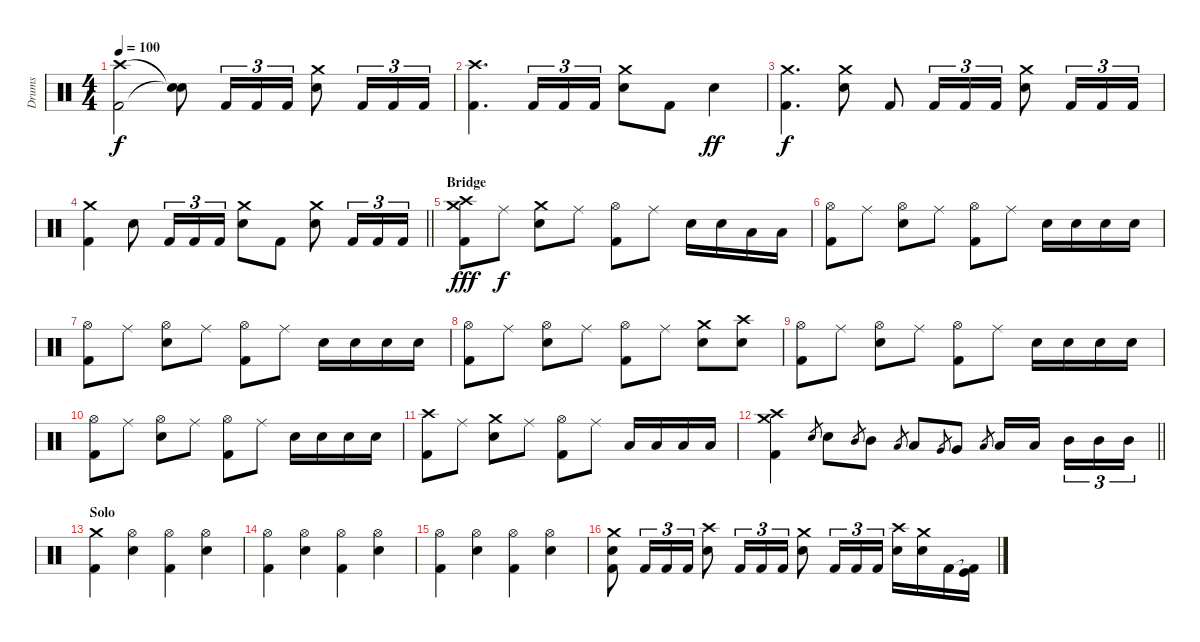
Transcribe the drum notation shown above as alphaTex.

\track ("Drums" "Drums") {instrument percussion}
\staff {score}
\articulation defaults
\ts (4 4)
\tempo 100
\clef neutral
\ks c
("Crash high (hit)" "Kick (hit) 2").2{dy f} ("Snare (hit)"{t} "Snare (hit)"{t}).8 "Kick (hit) 2".16{tu (3 2)} "Kick (hit) 2".16{tu (3 2)} "Kick (hit) 2".16{tu (3 2)} ("Crash medium (hit)" "Snare (hit) 2").8 "Kick (hit) 2".16{tu (3 2)} "Kick (hit) 2".16{tu (3 2)} "Kick (hit) 2".16{tu (3 2)} |
("Crash high (hit)" "Kick (hit) 2").4{d} "Kick (hit) 2".16{tu (3 2)} "Kick (hit) 2".16{tu (3 2)} "Kick (hit) 2".16{tu (3 2)} ("Crash medium (hit)" "Snare (hit) 2").8 "Kick (hit) 2".8 "Electric Snare (hit)".4{dy ff} |
("Crash medium (hit)" "Kick (hit) 2").4{d dy f} ("Crash medium (hit)" "Snare (hit) 2").8 "Kick (hit) 2".8 "Kick (hit) 2".16{tu (3 2)} "Kick (hit) 2".16{tu (3 2)} "Kick (hit) 2".16{tu (3 2)} ("Crash medium (hit)" "Snare (hit) 2").8 "Kick (hit) 2".16{tu (3 2)} "Kick (hit) 2".16{tu (3 2)} "Kick (hit) 2".16{tu (3 2)} |
\barLineRight lightlight
("Crash medium (hit)" "Kick (hit) 2").4 "Snare (hit) 2".8 "Kick (hit) 2".16{tu (3 2)} "Kick (hit) 2".16{tu (3 2)} "Kick (hit) 2".16{tu (3 2)} ("Crash medium (hit)" "Snare (hit) 2").8 "Kick (hit) 2".8 ("Crash medium (hit)" "Snare (hit) 2").8 "Kick (hit) 2".16{tu (3 2)} "Kick (hit) 2".16{tu (3 2)} "Kick (hit) 2".16{tu (3 2)} |
\section ("" "Bridge")
("Crash high (hit)" "Crash medium (hit)" "Kick (hit) 2").8{dy fff} "Ride (middle)".8{dy f} ("Crash medium (hit)" "Snare (hit) 2").8 "Ride (middle)".8 ("Hi-Hat (open)" "Kick (hit) 2").8 "Ride (middle)".8 "Electric Snare (hit)".16 "Electric Snare (hit)".16 "Low Floor Tom (hit)".16 "Low Floor Tom (hit)".16 |
("Hi-Hat (open)" "Kick (hit) 2").8 "Ride (middle)".8 ("Hi-Hat (open)" "Snare (hit) 2").8 "Ride (middle)".8 ("Hi-Hat (open)" "Kick (hit) 2").8 "Ride (middle)".8 "Electric Snare (hit)".16 "Electric Snare (hit)".16 "Electric Snare (hit)".16 "Electric Snare (hit)".16 |
("Hi-Hat (open)" "Kick (hit) 2").8 "Ride (middle)".8 ("Hi-Hat (open)" "Snare (hit) 2").8 "Ride (middle)".8 ("Hi-Hat (open)" "Kick (hit) 2").8 "Ride (middle)".8 "Electric Snare (hit)".16 "Electric Snare (hit)".16 "Electric Snare (hit)".16 "Electric Snare (hit)".16 |
("Hi-Hat (open)" "Kick (hit) 2").8 "Ride (middle)".8 ("Hi-Hat (open)" "Snare (hit) 2").8 "Ride (middle)".8 ("Hi-Hat (open)" "Kick (hit) 2").8 "Ride (middle)".8 ("Crash medium (hit)" "Snare (hit) 2").8 ("Crash high (hit)" "Snare (hit) 2").8 |
("Hi-Hat (open)" "Kick (hit) 2").8 "Ride (middle)".8 ("Hi-Hat (open)" "Snare (hit) 2").8 "Ride (middle)".8 ("Hi-Hat (open)" "Kick (hit) 2").8 "Ride (middle)".8 "Electric Snare (hit)".16 "Electric Snare (hit)".16 "Electric Snare (hit)".16 "Electric Snare (hit)".16 |
("Hi-Hat (open)" "Kick (hit) 2").8 "Ride (middle)".8 ("Hi-Hat (open)" "Snare (hit) 2").8 "Ride (middle)".8 ("Hi-Hat (open)" "Kick (hit) 2").8 "Ride (middle)".8 "Snare (hit) 2".16 "Snare (hit) 2".16 "Snare (hit) 2".16 "Snare (hit) 2".16 |
("Crash high (hit)" "Kick (hit) 2").8 "Ride (middle)".8 ("Crash medium (hit)" "Snare (hit) 2").8 "Ride (middle)".8 ("Hi-Hat (open)" "Kick (hit) 2").8 "Ride (middle)".8 "Low Tom (hit)".16 "Low Tom (hit)".16 "Low Tom (hit)".16 "Low Tom (hit)".16 |
\barLineRight lightlight
("Crash high (hit)" "Crash medium (hit)" "Kick (hit) 2").4 "Electric Snare (hit)".8{gr} "Electric Snare (hit)".8 "Mid Tom (hit)".8{gr} "Mid Tom (hit)".8 "Low Tom (hit)".8{gr} "Low Tom (hit)".8 "Very Low Tom (hit)".8{gr} "Very Low Tom (hit)".8 "Low Tom (hit)".8{gr} "Low Tom (hit)".16 "Low Tom (hit)".16{beam splitsecondary} "Mid Tom (hit)".16{tu (3 2)} "Mid Tom (hit)".16{tu (3 2)} "Mid Tom (hit)".16{tu (3 2)} |
\section ("" "Solo")
("Crash medium (hit)" "Kick (hit) 2").4 ("Hi-Hat (open)" "Snare (hit) 2").4 ("Hi-Hat (open)" "Kick (hit) 2").4 ("Hi-Hat (open)" "Snare (hit) 2").4 |
("Hi-Hat (open)" "Kick (hit) 2").4 ("Hi-Hat (open)" "Snare (hit) 2").4 ("Hi-Hat (open)" "Kick (hit) 2").4 ("Hi-Hat (open)" "Snare (hit) 2").4 |
("Hi-Hat (open)" "Kick (hit) 2").4 ("Hi-Hat (open)" "Snare (hit) 2").4 ("Hi-Hat (open)" "Kick (hit) 2").4 ("Hi-Hat (open)" "Snare (hit) 2").4 |
("Crash medium (hit)" "Snare (hit) 2" "Kick (hit) 2").8 "Kick (hit) 2".16{tu (3 2)} "Kick (hit) 2".16{tu (3 2)} "Kick (hit) 2".16{tu (3 2)} ("Crash high (hit)" "Snare (hit) 2").8 "Kick (hit) 2".16{tu (3 2)} "Kick (hit) 2".16{tu (3 2)} "Kick (hit) 2".16{tu (3 2)} ("Crash medium (hit)" "Snare (hit) 2").8 "Kick (hit) 2".16{tu (3 2)} "Kick (hit) 2".16{tu (3 2)} "Kick (hit) 2".16{tu (3 2)} ("Crash high (hit)" "Snare (hit) 2").16 ("Crash medium (hit)" "Snare (hit) 2").16 "Kick (hit) 2".16 ("Kick (hit)"{t} "Kick (hit) 2").16
